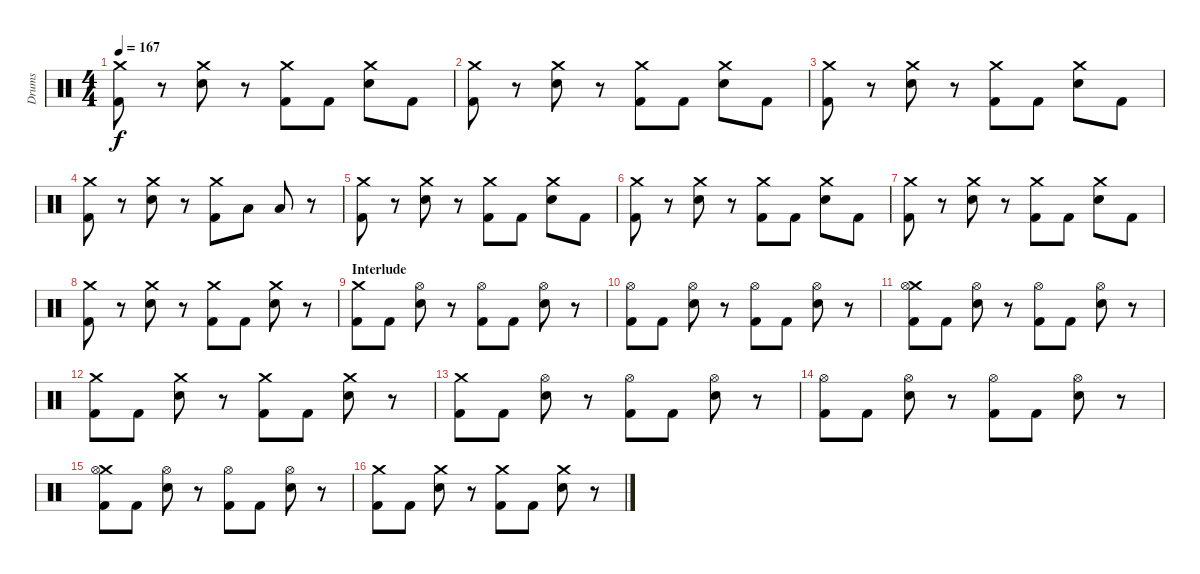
\track ("Drums" "Drums") {instrument percussion}
\staff {score}
\articulation defaults
\ts (4 4)
\tempo 167
\clef neutral
\ks c
("Crash medium (hit)" "Kick (hit) 2").8{dy f} r.8 ("Crash medium (hit)" "Electric Snare (hit)").8 r.8 ("Crash medium (hit)" "Kick (hit) 2").8 "Kick (hit) 2".8 ("Crash medium (hit)" "Electric Snare (hit)").8 "Kick (hit) 2".8 |
("Crash medium (hit)" "Kick (hit) 2").8 r.8 ("Crash medium (hit)" "Electric Snare (hit)").8 r.8 ("Crash medium (hit)" "Kick (hit) 2").8 "Kick (hit) 2".8 ("Crash medium (hit)" "Electric Snare (hit)").8 "Kick (hit) 2".8 |
("Crash medium (hit)" "Kick (hit) 2").8 r.8 ("Crash medium (hit)" "Electric Snare (hit)").8 r.8 ("Crash medium (hit)" "Kick (hit) 2").8 "Kick (hit) 2".8 ("Crash medium (hit)" "Electric Snare (hit)").8 "Kick (hit) 2".8 |
("Crash medium (hit)" "Kick (hit) 2").8 r.8 ("Crash medium (hit)" "Electric Snare (hit)").8 r.8 ("Crash medium (hit)" "Kick (hit) 2").8 "Low Tom (hit)".8 "Low Tom (hit)".8 r.8 |
("Crash medium (hit)" "Kick (hit) 2").8 r.8 ("Crash medium (hit)" "Electric Snare (hit)").8 r.8 ("Crash medium (hit)" "Kick (hit) 2").8 "Kick (hit) 2".8 ("Crash medium (hit)" "Electric Snare (hit)").8 "Kick (hit) 2".8 |
("Crash medium (hit)" "Kick (hit) 2").8 r.8 ("Crash medium (hit)" "Electric Snare (hit)").8 r.8 ("Crash medium (hit)" "Kick (hit) 2").8 "Kick (hit) 2".8 ("Crash medium (hit)" "Electric Snare (hit)").8 "Kick (hit) 2".8 |
("Crash medium (hit)" "Kick (hit) 2").8 r.8 ("Crash medium (hit)" "Electric Snare (hit)").8 r.8 ("Crash medium (hit)" "Kick (hit) 2").8 "Kick (hit) 2".8 ("Crash medium (hit)" "Electric Snare (hit)").8 "Kick (hit) 2".8 |
("Crash medium (hit)" "Kick (hit) 2").8 r.8 ("Crash medium (hit)" "Electric Snare (hit)").8 r.8 ("Crash medium (hit)" "Kick (hit) 2").8 "Kick (hit) 2".8 ("Crash medium (hit)" "Electric Snare (hit)").8 r.8 |
\section ("" "Interlude")
("Crash medium (hit)" "Kick (hit) 2").8 "Kick (hit) 2".8 ("Hi-Hat (open)" "Electric Snare (hit)").8 r.8 ("Hi-Hat (open)" "Kick (hit) 2").8 "Kick (hit) 2".8 ("Hi-Hat (open)" "Electric Snare (hit)").8 r.8 |
("Hi-Hat (open)" "Kick (hit) 2").8 "Kick (hit) 2".8 ("Hi-Hat (open)" "Electric Snare (hit)").8 r.8 ("Hi-Hat (open)" "Kick (hit) 2").8 "Kick (hit) 2".8 ("Hi-Hat (open)" "Electric Snare (hit)").8 r.8 |
("Crash medium (hit)" "Hi-Hat (open)" "Kick (hit) 2").8 "Kick (hit) 2".8 ("Hi-Hat (open)" "Electric Snare (hit)").8 r.8 ("Hi-Hat (open)" "Kick (hit) 2").8 "Kick (hit) 2".8 ("Hi-Hat (open)" "Electric Snare (hit)").8 r.8 |
("Crash medium (hit)" "Kick (hit) 2").8 "Kick (hit) 2".8 ("Crash medium (hit)" "Electric Snare (hit)").8 r.8 ("Crash medium (hit)" "Kick (hit) 2").8 "Kick (hit) 2".8 ("Crash medium (hit)" "Electric Snare (hit)").8 r.8 |
("Crash medium (hit)" "Kick (hit) 2").8 "Kick (hit) 2".8 ("Hi-Hat (open)" "Electric Snare (hit)").8 r.8 ("Hi-Hat (open)" "Kick (hit) 2").8 "Kick (hit) 2".8 ("Hi-Hat (open)" "Electric Snare (hit)").8 r.8 |
("Hi-Hat (open)" "Kick (hit) 2").8 "Kick (hit) 2".8 ("Hi-Hat (open)" "Electric Snare (hit)").8 r.8 ("Hi-Hat (open)" "Kick (hit) 2").8 "Kick (hit) 2".8 ("Hi-Hat (open)" "Electric Snare (hit)").8 r.8 |
("Crash medium (hit)" "Hi-Hat (open)" "Kick (hit) 2").8 "Kick (hit) 2".8 ("Hi-Hat (open)" "Electric Snare (hit)").8 r.8 ("Hi-Hat (open)" "Kick (hit) 2").8 "Kick (hit) 2".8 ("Hi-Hat (open)" "Electric Snare (hit)").8 r.8 |
("Crash medium (hit)" "Kick (hit) 2").8 "Kick (hit) 2".8 ("Crash medium (hit)" "Electric Snare (hit)").8 r.8 ("Crash medium (hit)" "Kick (hit) 2").8 "Kick (hit) 2".8 ("Crash medium (hit)" "Electric Snare (hit)").8 r.8
